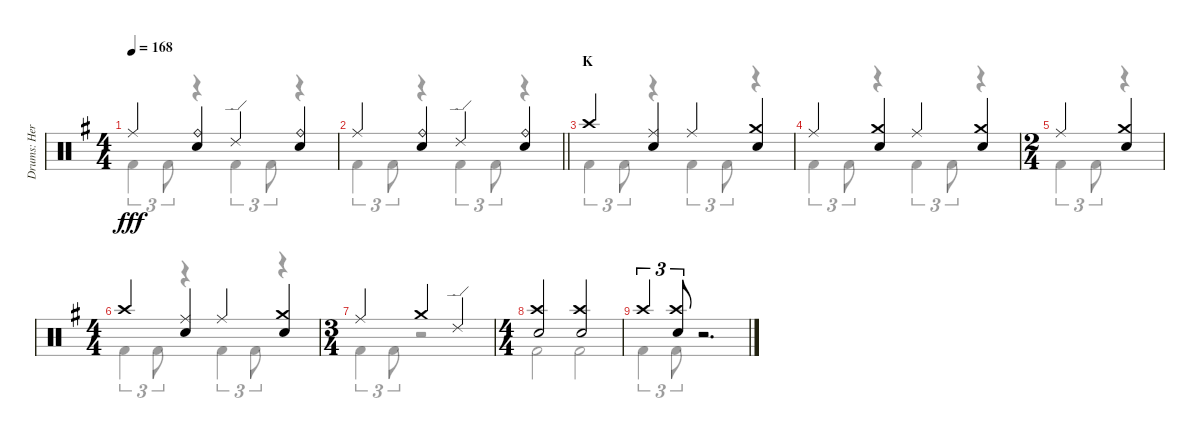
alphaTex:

\track ("Drums: Herman" "Drums: Her") {instrument percussion}
\staff {score}
\articulation defaults
\voice
\ts (4 4)
\tempo 168
\clef neutral
\ks g "Ride (middle)".4{dy fff}
("Ride (bell)" "Snare (hit) 2").4 "Ride (edge) 2".4 ("Ride (bell)" "Snare (hit) 2").4 |
\barLineRight lightlight "Ride (middle)".4
("Ride (bell)" "Snare (hit) 2").4 "Ride (edge) 2".4 ("Ride (bell)" "Snare (hit) 2").4 |
\section ("" "K")
"Crash high (hit)".4 ("Ride (middle)" "Snare (hit) 2").4 "Ride (middle)".4 ("Crash medium (hit)" "Snare (hit) 2").4 |
"Ride (middle)".4 ("Crash medium (hit)" "Snare (hit) 2").4 "Ride (middle)".4 ("Crash medium (hit)" "Snare (hit) 2").4 |
\ts (2 4)
"Ride (middle)".4 ("Crash medium (hit)" "Snare (hit) 2").4 |
\ts (4 4)
"Crash high (hit)".4 ("Ride (middle)" "Snare (hit) 2").4 "Ride (middle)".4 ("Crash medium (hit)" "Snare (hit) 2").4 |
\ts (3 4)
"Ride (middle)".4 "Crash medium (hit)".4 "Ride (edge) 2".4 |
\ts (4 4)
("Crash high (hit)" "Snare (hit) 2").2 ("Crash high (hit)" "Snare (hit) 2").2 |
"Crash high (hit)".4{tu (3 2)} ("Crash high (hit)" "Snare (hit) 2").8{tu (3 2)} r.2{d}
\voice
\clef neutral
\ottava regular
\simile none
\ks g "Kick (hit) 2".4{tu (3 2) dy fff} "Kick (hit) 2".8{tu (3 2)}
r.4 "Kick (hit) 2".4{tu (3 2)} "Kick (hit) 2".8{tu (3 2)} r.4 |
\barLineRight lightlight "Kick (hit) 2".4{tu (3 2)} "Kick (hit) 2".8{tu (3 2)}
r.4 "Kick (hit) 2".4{tu (3 2)} "Kick (hit) 2".8{tu (3 2)} r.4 |
"Kick (hit) 2".4{tu (3 2)} "Kick (hit) 2".8{tu (3 2)} r.4 "Kick (hit) 2".4{tu (3 2)} "Kick (hit) 2".8{tu (3 2)} r.4 |
"Kick (hit) 2".4{tu (3 2)} "Kick (hit) 2".8{tu (3 2)} r.4 "Kick (hit) 2".4{tu (3 2)} "Kick (hit) 2".8{tu (3 2)} r.4 |
"Kick (hit) 2".4{tu (3 2)} "Kick (hit) 2".8{tu (3 2)} r.4 |
"Kick (hit) 2".4{tu (3 2)} "Kick (hit) 2".8{tu (3 2)} r.4 "Kick (hit) 2".4{tu (3 2)} "Kick (hit) 2".8{tu (3 2)} r.4 |
"Kick (hit) 2".4{tu (3 2)} "Kick (hit) 2".8{tu (3 2)} r.2 |
"Kick (hit) 2".2 "Kick (hit) 2".2 |
"Kick (hit) 2".4{tu (3 2)} "Kick (hit) 2".8{tu (3 2)} r.2{d}
